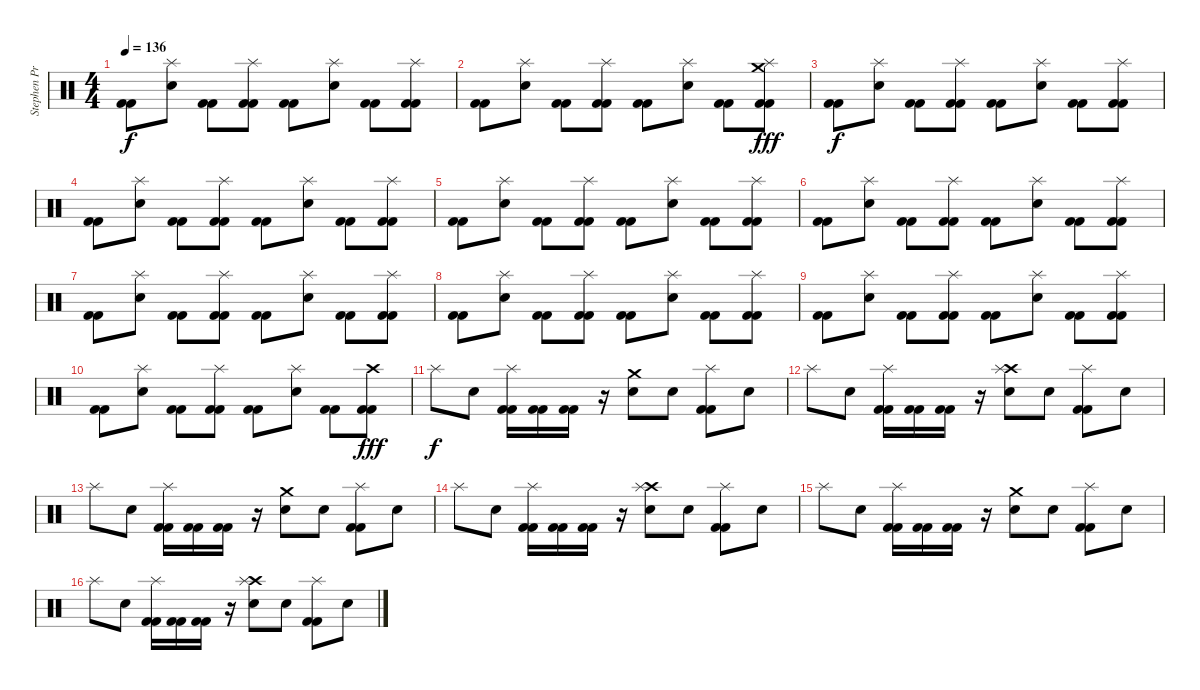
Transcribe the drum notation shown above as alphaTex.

\track ("Stephen Priestly  (Drums)" "Stephen Pr") {instrument percussion}
\staff {score}
\articulation defaults
\ts (4 4)
\tempo 136
\clef neutral
\ks c
("Kick (hit) 2" "Kick (hit) 2").8{dy f} ("Electric Snare (hit)" "Splash (hit)").8 ("Kick (hit) 2" "Kick (hit) 2").8 ("Splash (hit)" "Kick (hit) 2" "Kick (hit) 2").8 ("Kick (hit) 2" "Kick (hit) 2").8 ("Electric Snare (hit)" "Splash (hit)").8 ("Kick (hit) 2" "Kick (hit) 2").8 ("Splash (hit)" "Kick (hit) 2" "Kick (hit) 2").8 |
("Kick (hit) 2" "Kick (hit) 2").8 ("Electric Snare (hit)" "Splash (hit)").8 ("Kick (hit) 2" "Kick (hit) 2").8 ("Splash (hit)" "Kick (hit) 2" "Kick (hit) 2").8 ("Kick (hit) 2" "Kick (hit) 2").8 ("Electric Snare (hit)" "Splash (hit)").8 ("Kick (hit) 2" "Kick (hit) 2").8 ("Crash medium (hit)" "Splash (hit)" "Kick (hit) 2" "Kick (hit) 2").8{dy fff} |
("Kick (hit) 2" "Kick (hit) 2").8{dy f} ("Electric Snare (hit)" "Splash (hit)").8 ("Kick (hit) 2" "Kick (hit) 2").8 ("Splash (hit)" "Kick (hit) 2" "Kick (hit) 2").8 ("Kick (hit) 2" "Kick (hit) 2").8 ("Electric Snare (hit)" "Splash (hit)").8 ("Kick (hit) 2" "Kick (hit) 2").8 ("Splash (hit)" "Kick (hit) 2" "Kick (hit) 2").8 |
("Kick (hit) 2" "Kick (hit) 2").8 ("Electric Snare (hit)" "Splash (hit)").8 ("Kick (hit) 2" "Kick (hit) 2").8 ("Splash (hit)" "Kick (hit) 2" "Kick (hit) 2").8 ("Kick (hit) 2" "Kick (hit) 2").8 ("Electric Snare (hit)" "Splash (hit)").8 ("Kick (hit) 2" "Kick (hit) 2").8 ("Splash (hit)" "Kick (hit) 2" "Kick (hit) 2").8 |
("Kick (hit) 2" "Kick (hit) 2").8 ("Electric Snare (hit)" "Splash (hit)").8 ("Kick (hit) 2" "Kick (hit) 2").8 ("Splash (hit)" "Kick (hit) 2" "Kick (hit) 2").8 ("Kick (hit) 2" "Kick (hit) 2").8 ("Electric Snare (hit)" "Splash (hit)").8 ("Kick (hit) 2" "Kick (hit) 2").8 ("Splash (hit)" "Kick (hit) 2" "Kick (hit) 2").8 |
("Kick (hit) 2" "Kick (hit) 2").8 ("Electric Snare (hit)" "Splash (hit)").8 ("Kick (hit) 2" "Kick (hit) 2").8 ("Splash (hit)" "Kick (hit) 2" "Kick (hit) 2").8 ("Kick (hit) 2" "Kick (hit) 2").8 ("Electric Snare (hit)" "Splash (hit)").8 ("Kick (hit) 2" "Kick (hit) 2").8 ("Splash (hit)" "Kick (hit) 2" "Kick (hit) 2").8 |
("Kick (hit) 2" "Kick (hit) 2").8 ("Electric Snare (hit)" "Splash (hit)").8 ("Kick (hit) 2" "Kick (hit) 2").8 ("Splash (hit)" "Kick (hit) 2" "Kick (hit) 2").8 ("Kick (hit) 2" "Kick (hit) 2").8 ("Electric Snare (hit)" "Splash (hit)").8 ("Kick (hit) 2" "Kick (hit) 2").8 ("Splash (hit)" "Kick (hit) 2" "Kick (hit) 2").8 |
("Kick (hit) 2" "Kick (hit) 2").8 ("Electric Snare (hit)" "Splash (hit)").8 ("Kick (hit) 2" "Kick (hit) 2").8 ("Splash (hit)" "Kick (hit) 2" "Kick (hit) 2").8 ("Kick (hit) 2" "Kick (hit) 2").8 ("Electric Snare (hit)" "Splash (hit)").8 ("Kick (hit) 2" "Kick (hit) 2").8 ("Splash (hit)" "Kick (hit) 2" "Kick (hit) 2").8 |
("Kick (hit) 2" "Kick (hit) 2").8 ("Electric Snare (hit)" "Splash (hit)").8 ("Kick (hit) 2" "Kick (hit) 2").8 ("Splash (hit)" "Kick (hit) 2" "Kick (hit) 2").8 ("Kick (hit) 2" "Kick (hit) 2").8 ("Electric Snare (hit)" "Splash (hit)").8 ("Kick (hit) 2" "Kick (hit) 2").8 ("Splash (hit)" "Kick (hit) 2" "Kick (hit) 2").8 |
("Kick (hit) 2" "Kick (hit) 2").8 ("Electric Snare (hit)" "Splash (hit)").8 ("Kick (hit) 2" "Kick (hit) 2").8 ("Splash (hit)" "Kick (hit) 2" "Kick (hit) 2").8 ("Kick (hit) 2" "Kick (hit) 2").8 ("Electric Snare (hit)" "Splash (hit)").8 ("Kick (hit) 2" "Kick (hit) 2").8 ("Crash high (hit)" "Kick (hit) 2" "Kick (hit) 2").8{dy fff} |
"Splash (hit)".8{dy f} "Snare (hit)".8 ("Splash (hit)" "Kick (hit) 2" "Kick (hit) 2").16 ("Kick (hit) 2" "Kick (hit) 2").16 ("Kick (hit) 2" "Kick (hit) 2").16 r.16 ("Crash medium (hit)" "Electric Snare (hit)").8 "Snare (hit)".8 ("Splash (hit)" "Kick (hit) 2" "Kick (hit) 2").8 "Snare (hit)".8 |
"Splash (hit)".8 "Snare (hit)".8 ("Splash (hit)" "Kick (hit) 2" "Kick (hit) 2").16 ("Kick (hit) 2" "Kick (hit) 2").16 ("Kick (hit) 2" "Kick (hit) 2").16 r.16 ("Crash high (hit)" "Splash (hit)" "Electric Snare (hit)").8 "Snare (hit)".8 ("Splash (hit)" "Kick (hit) 2" "Kick (hit) 2").8 "Snare (hit)".8 |
"Splash (hit)".8 "Snare (hit)".8 ("Splash (hit)" "Kick (hit) 2" "Kick (hit) 2").16 ("Kick (hit) 2" "Kick (hit) 2").16 ("Kick (hit) 2" "Kick (hit) 2").16 r.16 ("Crash medium (hit)" "Electric Snare (hit)").8 "Snare (hit)".8 ("Splash (hit)" "Kick (hit) 2" "Kick (hit) 2").8 "Snare (hit)".8 |
"Splash (hit)".8 "Snare (hit)".8 ("Splash (hit)" "Kick (hit) 2" "Kick (hit) 2").16 ("Kick (hit) 2" "Kick (hit) 2").16 ("Kick (hit) 2" "Kick (hit) 2").16 r.16 ("Crash high (hit)" "Splash (hit)" "Electric Snare (hit)").8 "Snare (hit)".8 ("Splash (hit)" "Kick (hit) 2" "Kick (hit) 2").8 "Snare (hit)".8 |
"Splash (hit)".8 "Snare (hit)".8 ("Splash (hit)" "Kick (hit) 2" "Kick (hit) 2").16 ("Kick (hit) 2" "Kick (hit) 2").16 ("Kick (hit) 2" "Kick (hit) 2").16 r.16 ("Crash medium (hit)" "Electric Snare (hit)").8 "Snare (hit)".8 ("Splash (hit)" "Kick (hit) 2" "Kick (hit) 2").8 "Snare (hit)".8 |
"Splash (hit)".8 "Snare (hit)".8 ("Splash (hit)" "Kick (hit) 2" "Kick (hit) 2").16 ("Kick (hit) 2" "Kick (hit) 2").16 ("Kick (hit) 2" "Kick (hit) 2").16 r.16 ("Crash high (hit)" "Splash (hit)" "Electric Snare (hit)").8 "Snare (hit)".8 ("Splash (hit)" "Kick (hit) 2" "Kick (hit) 2").8 "Snare (hit)".8
